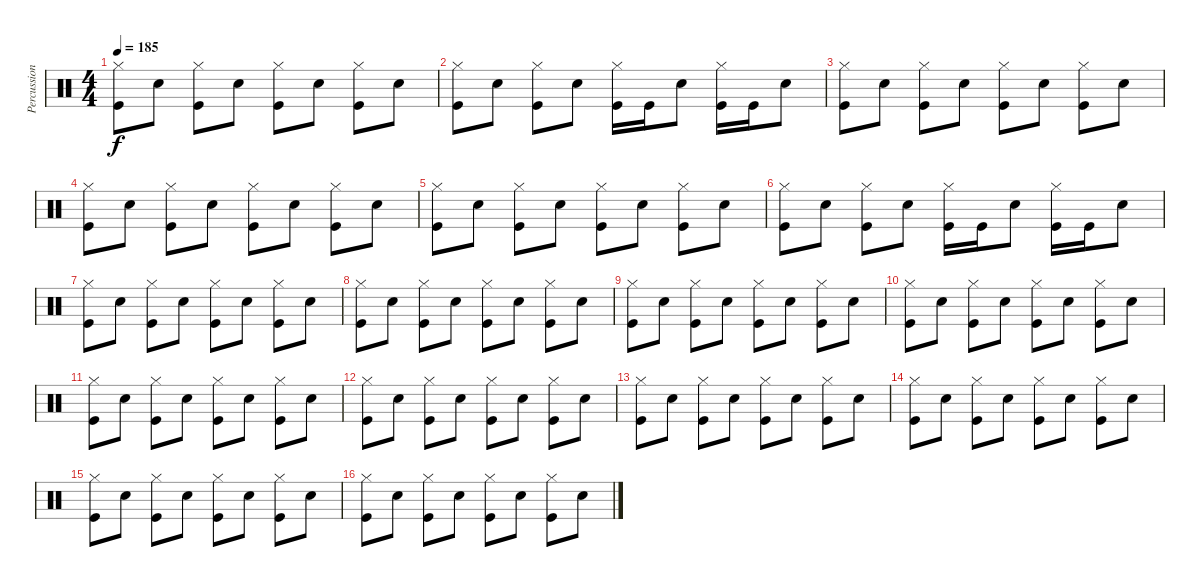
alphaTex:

\track ("Percussion" "Percussion") {instrument percussion}
\staff {score}
\articulation defaults
\ts (4 4)
\tempo 185
\clef neutral
\ks c
("Hi-Hat (closed)" "Kick (hit)").8{dy f} "Snare (hit) 2".8 ("Hi-Hat (closed)" "Kick (hit)").8 "Snare (hit) 2".8 ("Hi-Hat (closed)" "Kick (hit)").8 "Snare (hit) 2".8 ("Hi-Hat (closed)" "Kick (hit)").8 "Snare (hit) 2".8 |
("Hi-Hat (closed)" "Kick (hit)").8 "Snare (hit) 2".8 ("Hi-Hat (closed)" "Kick (hit)").8 "Snare (hit) 2".8 ("Hi-Hat (closed)" "Kick (hit)").16 "Kick (hit)".16 "Snare (hit) 2".8 ("Hi-Hat (closed)" "Kick (hit)").16 "Kick (hit)".16 "Snare (hit) 2".8 |
("Hi-Hat (closed)" "Kick (hit)").8 "Snare (hit) 2".8 ("Hi-Hat (closed)" "Kick (hit)").8 "Snare (hit) 2".8 ("Hi-Hat (closed)" "Kick (hit)").8 "Snare (hit) 2".8 ("Hi-Hat (closed)" "Kick (hit)").8 "Snare (hit) 2".8 |
("Hi-Hat (closed)" "Kick (hit)").8 "Snare (hit) 2".8 ("Hi-Hat (closed)" "Kick (hit)").8 "Snare (hit) 2".8 ("Hi-Hat (closed)" "Kick (hit)").8 "Snare (hit) 2".8 ("Hi-Hat (closed)" "Kick (hit)").8 "Snare (hit) 2".8 |
("Hi-Hat (closed)" "Kick (hit)").8 "Snare (hit) 2".8 ("Hi-Hat (closed)" "Kick (hit)").8 "Snare (hit) 2".8 ("Hi-Hat (closed)" "Kick (hit)").8 "Snare (hit) 2".8 ("Hi-Hat (closed)" "Kick (hit)").8 "Snare (hit) 2".8 |
("Hi-Hat (closed)" "Kick (hit)").8 "Snare (hit) 2".8 ("Hi-Hat (closed)" "Kick (hit)").8 "Snare (hit) 2".8 ("Hi-Hat (closed)" "Kick (hit)").16 "Kick (hit)".16 "Snare (hit) 2".8 ("Hi-Hat (closed)" "Kick (hit)").16 "Kick (hit)".16 "Snare (hit) 2".8 |
("Hi-Hat (closed)" "Kick (hit)").8 "Snare (hit) 2".8 ("Hi-Hat (closed)" "Kick (hit)").8 "Snare (hit) 2".8 ("Hi-Hat (closed)" "Kick (hit)").8 "Snare (hit) 2".8 ("Hi-Hat (closed)" "Kick (hit)").8 "Snare (hit) 2".8 |
("Hi-Hat (closed)" "Kick (hit)").8 "Snare (hit) 2".8 ("Hi-Hat (closed)" "Kick (hit)").8 "Snare (hit) 2".8 ("Hi-Hat (closed)" "Kick (hit)").8 "Snare (hit) 2".8 ("Hi-Hat (closed)" "Kick (hit)").8 "Snare (hit) 2".8 |
("Hi-Hat (closed)" "Kick (hit)").8 "Snare (hit) 2".8 ("Hi-Hat (closed)" "Kick (hit)").8 "Snare (hit) 2".8 ("Hi-Hat (closed)" "Kick (hit)").8 "Snare (hit) 2".8 ("Hi-Hat (closed)" "Kick (hit)").8 "Snare (hit) 2".8 |
("Hi-Hat (closed)" "Kick (hit)").8 "Snare (hit) 2".8 ("Hi-Hat (closed)" "Kick (hit)").8 "Snare (hit) 2".8 ("Hi-Hat (closed)" "Kick (hit)").8 "Snare (hit) 2".8 ("Hi-Hat (closed)" "Kick (hit)").8 "Snare (hit) 2".8 |
("Hi-Hat (closed)" "Kick (hit)").8 "Snare (hit) 2".8 ("Hi-Hat (closed)" "Kick (hit)").8 "Snare (hit) 2".8 ("Hi-Hat (closed)" "Kick (hit)").8 "Snare (hit) 2".8 ("Hi-Hat (closed)" "Kick (hit)").8 "Snare (hit) 2".8 |
("Hi-Hat (closed)" "Kick (hit)").8 "Snare (hit) 2".8 ("Hi-Hat (closed)" "Kick (hit)").8 "Snare (hit) 2".8 ("Hi-Hat (closed)" "Kick (hit)").8 "Snare (hit) 2".8 ("Hi-Hat (closed)" "Kick (hit)").8 "Snare (hit) 2".8 |
("Hi-Hat (closed)" "Kick (hit)").8 "Snare (hit) 2".8 ("Hi-Hat (closed)" "Kick (hit)").8 "Snare (hit) 2".8 ("Hi-Hat (closed)" "Kick (hit)").8 "Snare (hit) 2".8 ("Hi-Hat (closed)" "Kick (hit)").8 "Snare (hit) 2".8 |
("Hi-Hat (closed)" "Kick (hit)").8 "Snare (hit) 2".8 ("Hi-Hat (closed)" "Kick (hit)").8 "Snare (hit) 2".8 ("Hi-Hat (closed)" "Kick (hit)").8 "Snare (hit) 2".8 ("Hi-Hat (closed)" "Kick (hit)").8 "Snare (hit) 2".8 |
("Hi-Hat (closed)" "Kick (hit)").8 "Snare (hit) 2".8 ("Hi-Hat (closed)" "Kick (hit)").8 "Snare (hit) 2".8 ("Hi-Hat (closed)" "Kick (hit)").8 "Snare (hit) 2".8 ("Hi-Hat (closed)" "Kick (hit)").8 "Snare (hit) 2".8 |
("Hi-Hat (closed)" "Kick (hit)").8 "Snare (hit) 2".8 ("Hi-Hat (closed)" "Kick (hit)").8 "Snare (hit) 2".8 ("Hi-Hat (closed)" "Kick (hit)").8 "Snare (hit) 2".8 ("Hi-Hat (closed)" "Kick (hit)").8 "Snare (hit) 2".8
